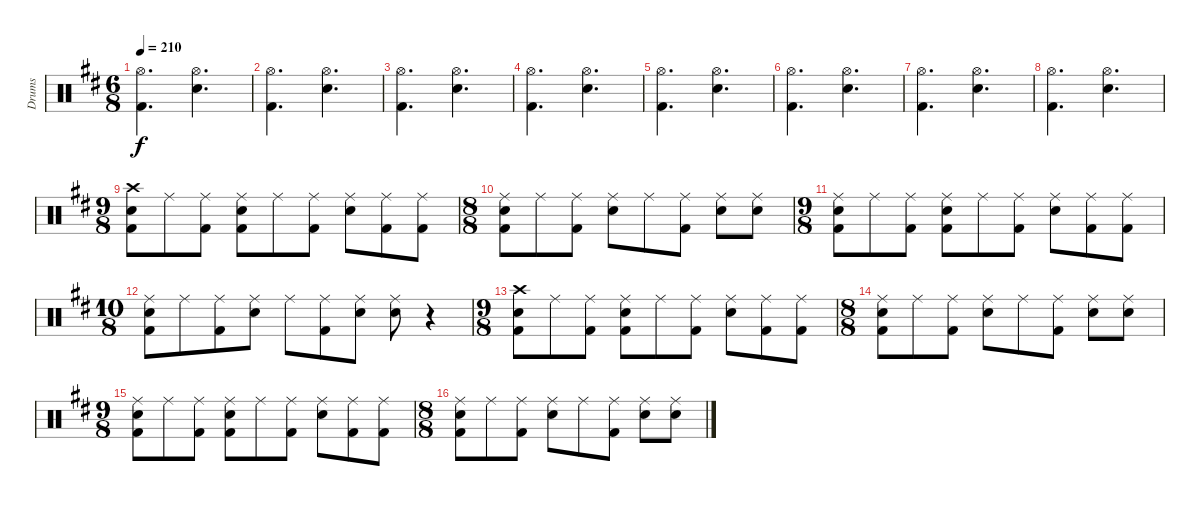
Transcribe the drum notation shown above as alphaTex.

\track ("Drums" "Drums") {instrument percussion}
\staff {score}
\articulation defaults
\ts (6 8)
\tempo 210
\clef neutral
\ks bminor
("Kick (hit) 2" "Hi-Hat (open)").4{d dy f} ("Electric Snare (hit)" "Hi-Hat (open)").4{d} |
("Kick (hit) 2" "Hi-Hat (open)").4{d} ("Electric Snare (hit)" "Hi-Hat (open)").4{d} |
("Kick (hit) 2" "Hi-Hat (open)").4{d} ("Electric Snare (hit)" "Hi-Hat (open)").4{d} |
("Kick (hit) 2" "Hi-Hat (open)").4{d} ("Electric Snare (hit)" "Hi-Hat (open)").4{d} |
("Kick (hit) 2" "Hi-Hat (open)").4{d} ("Electric Snare (hit)" "Hi-Hat (open)").4{d} |
("Kick (hit) 2" "Hi-Hat (open)").4{d} ("Electric Snare (hit)" "Hi-Hat (open)").4{d} |
("Kick (hit) 2" "Hi-Hat (open)").4{d} ("Electric Snare (hit)" "Hi-Hat (open)").4{d} |
("Kick (hit) 2" "Hi-Hat (open)").4{d} ("Electric Snare (hit)" "Hi-Hat (open)").4{d} |
\ts (9 8)
("Kick (hit) 2" "Electric Snare (hit)" "Crash high (hit)").8 "Ride (middle)".8 ("Kick (hit) 2" "Ride (middle)").8 ("Kick (hit) 2" "Electric Snare (hit)" "Ride (middle)").8 "Ride (middle)".8 ("Kick (hit) 2" "Ride (middle)").8 ("Electric Snare (hit)" "Ride (middle)").8 ("Kick (hit) 2" "Ride (middle)").8 ("Kick (hit) 2" "Ride (middle)").8 |
\ts (8 8)
("Kick (hit) 2" "Electric Snare (hit)" "Ride (middle)").8 "Ride (middle)".8 ("Kick (hit) 2" "Ride (middle)").8 ("Electric Snare (hit)" "Ride (middle)").8 "Ride (middle)".8 ("Kick (hit) 2" "Ride (middle)").8 ("Electric Snare (hit)" "Ride (middle)").8 ("Electric Snare (hit)" "Ride (middle)").8 |
\ts (9 8)
("Kick (hit) 2" "Electric Snare (hit)" "Ride (middle)").8 "Ride (middle)".8 ("Kick (hit) 2" "Ride (middle)").8 ("Kick (hit) 2" "Electric Snare (hit)" "Ride (middle)").8 "Ride (middle)".8 ("Kick (hit) 2" "Ride (middle)").8 ("Electric Snare (hit)" "Ride (middle)").8 ("Kick (hit) 2" "Ride (middle)").8 ("Kick (hit) 2" "Ride (middle)").8 |
\ts (10 8)
("Kick (hit) 2" "Electric Snare (hit)" "Ride (middle)").8 "Ride (middle)".8 ("Kick (hit) 2" "Ride (middle)").8 ("Electric Snare (hit)" "Ride (middle)").8 "Ride (middle)".8 ("Kick (hit) 2" "Ride (middle)").8 ("Electric Snare (hit)" "Ride (middle)").8 ("Electric Snare (hit)" "Ride (middle)").8 r.4 |
\ts (9 8)
("Kick (hit) 2" "Electric Snare (hit)" "Crash high (hit)").8 "Ride (middle)".8 ("Kick (hit) 2" "Ride (middle)").8 ("Kick (hit) 2" "Electric Snare (hit)" "Ride (middle)").8 "Ride (middle)".8 ("Kick (hit) 2" "Ride (middle)").8 ("Electric Snare (hit)" "Ride (middle)").8 ("Kick (hit) 2" "Ride (middle)").8 ("Kick (hit) 2" "Ride (middle)").8 |
\ts (8 8)
("Kick (hit) 2" "Electric Snare (hit)" "Ride (middle)").8 "Ride (middle)".8 ("Kick (hit) 2" "Ride (middle)").8 ("Electric Snare (hit)" "Ride (middle)").8 "Ride (middle)".8 ("Kick (hit) 2" "Ride (middle)").8 ("Electric Snare (hit)" "Ride (middle)").8 ("Electric Snare (hit)" "Ride (middle)").8 |
\ts (9 8)
("Kick (hit) 2" "Electric Snare (hit)" "Ride (middle)").8 "Ride (middle)".8 ("Kick (hit) 2" "Ride (middle)").8 ("Kick (hit) 2" "Electric Snare (hit)" "Ride (middle)").8 "Ride (middle)".8 ("Kick (hit) 2" "Ride (middle)").8 ("Electric Snare (hit)" "Ride (middle)").8 ("Kick (hit) 2" "Ride (middle)").8 ("Kick (hit) 2" "Ride (middle)").8 |
\ts (8 8)
("Kick (hit) 2" "Electric Snare (hit)" "Ride (middle)").8 "Ride (middle)".8 ("Kick (hit) 2" "Ride (middle)").8 ("Electric Snare (hit)" "Ride (middle)").8 "Ride (middle)".8 ("Kick (hit) 2" "Ride (middle)").8 ("Electric Snare (hit)" "Ride (middle)").8 ("Electric Snare (hit)" "Ride (middle)").8
